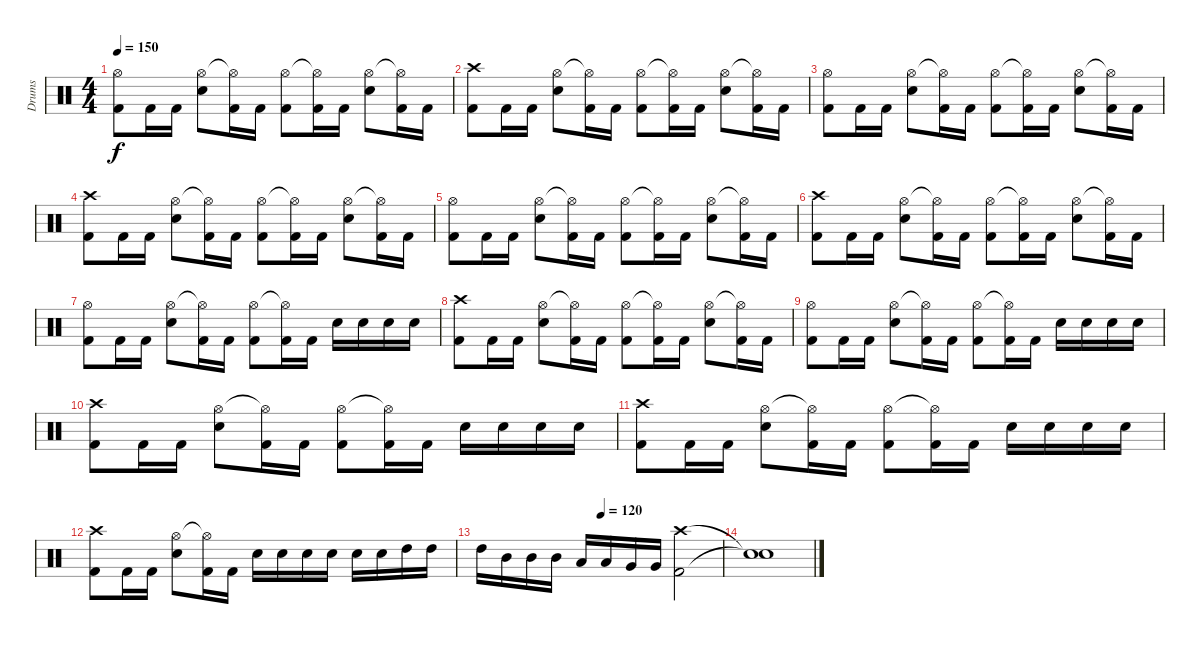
\track ("Drums" "Drums") {instrument percussion}
\staff {score}
\articulation defaults
\ts (4 4)
\tempo 150
\clef neutral
\ks c
("Kick (hit) 2" "Hi-Hat (open)").8{dy f} "Kick (hit) 2".16 "Kick (hit) 2".16 ("Snare (hit) 2" "Hi-Hat (open)").8 ("Kick (hit) 2" "Hi-Hat (open)"{t}).16 "Kick (hit) 2".16 ("Kick (hit) 2" "Hi-Hat (open)").8 ("Kick (hit) 2" "Hi-Hat (open)"{t}).16 "Kick (hit) 2".16 ("Snare (hit) 2" "Hi-Hat (open)").8 ("Kick (hit) 2" "Hi-Hat (open)"{t}).16 "Kick (hit) 2".16 |
("Kick (hit) 2" "Crash high (hit)").8 "Kick (hit) 2".16 "Kick (hit) 2".16 ("Snare (hit) 2" "Hi-Hat (open)").8 ("Kick (hit) 2" "Hi-Hat (open)"{t}).16 "Kick (hit) 2".16 ("Kick (hit) 2" "Hi-Hat (open)").8 ("Kick (hit) 2" "Hi-Hat (open)"{t}).16 "Kick (hit) 2".16 ("Snare (hit) 2" "Hi-Hat (open)").8 ("Kick (hit) 2" "Hi-Hat (open)"{t}).16 "Kick (hit) 2".16 |
("Kick (hit) 2" "Hi-Hat (open)").8 "Kick (hit) 2".16 "Kick (hit) 2".16 ("Snare (hit) 2" "Hi-Hat (open)").8 ("Kick (hit) 2" "Hi-Hat (open)"{t}).16 "Kick (hit) 2".16 ("Kick (hit) 2" "Hi-Hat (open)").8 ("Kick (hit) 2" "Hi-Hat (open)"{t}).16 "Kick (hit) 2".16 ("Snare (hit) 2" "Hi-Hat (open)").8 ("Kick (hit) 2" "Hi-Hat (open)"{t}).16 "Kick (hit) 2".16 |
("Kick (hit) 2" "Crash high (hit)").8 "Kick (hit) 2".16 "Kick (hit) 2".16 ("Snare (hit) 2" "Hi-Hat (open)").8 ("Kick (hit) 2" "Hi-Hat (open)"{t}).16 "Kick (hit) 2".16 ("Kick (hit) 2" "Hi-Hat (open)").8 ("Kick (hit) 2" "Hi-Hat (open)"{t}).16 "Kick (hit) 2".16 ("Snare (hit) 2" "Hi-Hat (open)").8 ("Kick (hit) 2" "Hi-Hat (open)"{t}).16 "Kick (hit) 2".16 |
("Kick (hit) 2" "Hi-Hat (open)").8 "Kick (hit) 2".16 "Kick (hit) 2".16 ("Snare (hit) 2" "Hi-Hat (open)").8 ("Kick (hit) 2" "Hi-Hat (open)"{t}).16 "Kick (hit) 2".16 ("Kick (hit) 2" "Hi-Hat (open)").8 ("Kick (hit) 2" "Hi-Hat (open)"{t}).16 "Kick (hit) 2".16 ("Snare (hit) 2" "Hi-Hat (open)").8 ("Kick (hit) 2" "Hi-Hat (open)"{t}).16 "Kick (hit) 2".16 |
("Kick (hit) 2" "Crash high (hit)").8 "Kick (hit) 2".16 "Kick (hit) 2".16 ("Snare (hit) 2" "Hi-Hat (open)").8 ("Kick (hit) 2" "Hi-Hat (open)"{t}).16 "Kick (hit) 2".16 ("Kick (hit) 2" "Hi-Hat (open)").8 ("Kick (hit) 2" "Hi-Hat (open)"{t}).16 "Kick (hit) 2".16 ("Snare (hit) 2" "Hi-Hat (open)").8 ("Kick (hit) 2" "Hi-Hat (open)"{t}).16 "Kick (hit) 2".16 |
("Kick (hit) 2" "Hi-Hat (open)").8 "Kick (hit) 2".16 "Kick (hit) 2".16 ("Snare (hit) 2" "Hi-Hat (open)").8 ("Kick (hit) 2" "Hi-Hat (open)"{t}).16 "Kick (hit) 2".16 ("Kick (hit) 2" "Hi-Hat (open)").8 ("Kick (hit) 2" "Hi-Hat (open)"{t}).16 "Kick (hit) 2".16 "Snare (hit) 2".16 "Snare (hit) 2".16 "Snare (hit) 2".16 "Snare (hit) 2".16 |
("Kick (hit) 2" "Crash high (hit)").8 "Kick (hit) 2".16 "Kick (hit) 2".16 ("Snare (hit) 2" "Hi-Hat (open)").8 ("Kick (hit) 2" "Hi-Hat (open)"{t}).16 "Kick (hit) 2".16 ("Kick (hit) 2" "Hi-Hat (open)").8 ("Kick (hit) 2" "Hi-Hat (open)"{t}).16 "Kick (hit) 2".16 ("Snare (hit) 2" "Hi-Hat (open)").8 ("Kick (hit) 2" "Hi-Hat (open)"{t}).16 "Kick (hit) 2".16 |
("Kick (hit) 2" "Hi-Hat (open)").8 "Kick (hit) 2".16 "Kick (hit) 2".16 ("Snare (hit) 2" "Hi-Hat (open)").8 ("Kick (hit) 2" "Hi-Hat (open)"{t}).16 "Kick (hit) 2".16 ("Kick (hit) 2" "Hi-Hat (open)").8 ("Kick (hit) 2" "Hi-Hat (open)"{t}).16 "Kick (hit) 2".16 "Snare (hit) 2".16 "Snare (hit) 2".16 "Snare (hit) 2".16 "Snare (hit) 2".16 |
("Kick (hit) 2" "Crash high (hit)").8 "Kick (hit) 2".16 "Kick (hit) 2".16 ("Snare (hit) 2" "Hi-Hat (open)").8 ("Kick (hit) 2" "Hi-Hat (open)"{t}).16 "Kick (hit) 2".16 ("Kick (hit) 2" "Hi-Hat (open)").8 ("Kick (hit) 2" "Hi-Hat (open)"{t}).16 "Kick (hit) 2".16 "Snare (hit) 2".16 "Snare (hit) 2".16 "Snare (hit) 2".16 "Snare (hit) 2".16 |
("Kick (hit) 2" "Crash high (hit)").8 "Kick (hit) 2".16 "Kick (hit) 2".16 ("Snare (hit) 2" "Hi-Hat (open)").8 ("Kick (hit) 2" "Hi-Hat (open)"{t}).16 "Kick (hit) 2".16 ("Kick (hit) 2" "Hi-Hat (open)").8 ("Kick (hit) 2" "Hi-Hat (open)"{t}).16 "Kick (hit) 2".16 "Snare (hit) 2".16 "Snare (hit) 2".16 "Snare (hit) 2".16 "Snare (hit) 2".16 |
("Kick (hit) 2" "Crash high (hit)").8 "Kick (hit) 2".16 "Kick (hit) 2".16 ("Snare (hit) 2" "Hi-Hat (open)").8 ("Kick (hit) 2" "Hi-Hat (open)"{t}).16 "Kick (hit) 2".16 "Snare (hit) 2".16 "Snare (hit) 2".16 "Snare (hit) 2".16 "Snare (hit) 2".16 "Snare (hit) 2".16 "Snare (hit) 2".16 "High Tom (hit)".16 "High Tom (hit)".16 |
\tempo (120 0.5)
"High Tom (hit)".16 "Mid Tom (hit)".16 "Mid Tom (hit)".16 "Mid Tom (hit)".16 "Low Tom (hit)".16 "Low Tom (hit)".16 "Very Low Tom (hit)".16 "Very Low Tom (hit)".16 ("Crash high (hit)" "Kick (hit) 2").2 |
("Snare (hit)"{t} "Snare (hit)"{t}).1
